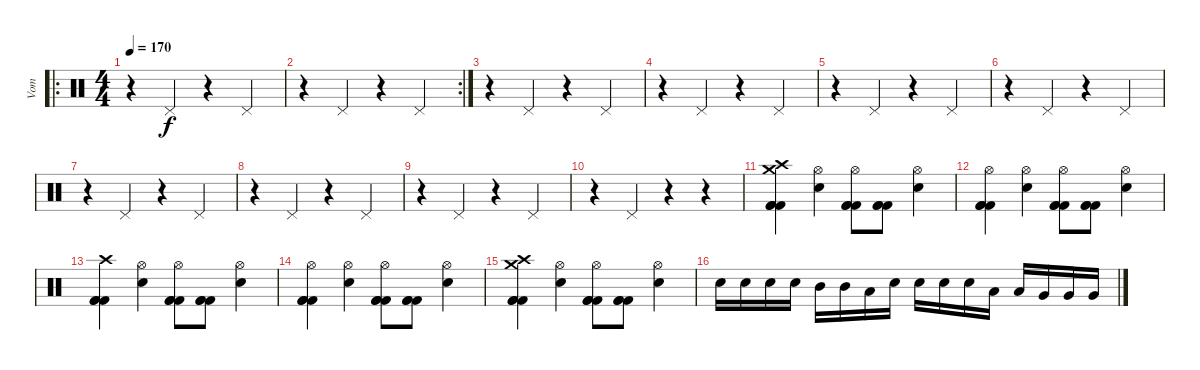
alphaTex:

\track ("Vom" "Vom") {instrument percussion}
\staff {score}
\articulation defaults
\ro
\ts (4 4)
\tempo 170
\clef neutral
\ks c
r.4{dy f} "Pedal Hi-Hat (hit)".4 r.4 "Pedal Hi-Hat (hit)".4 |
\rc 2
r.4 "Pedal Hi-Hat (hit)".4 r.4 "Pedal Hi-Hat (hit)".4 |
r.4 "Pedal Hi-Hat (hit)".4 r.4 "Pedal Hi-Hat (hit)".4 |
r.4 "Pedal Hi-Hat (hit)".4 r.4 "Pedal Hi-Hat (hit)".4 |
r.4 "Pedal Hi-Hat (hit)".4 r.4 "Pedal Hi-Hat (hit)".4 |
r.4 "Pedal Hi-Hat (hit)".4 r.4 "Pedal Hi-Hat (hit)".4 |
r.4 "Pedal Hi-Hat (hit)".4 r.4 "Pedal Hi-Hat (hit)".4 |
r.4 "Pedal Hi-Hat (hit)".4 r.4 "Pedal Hi-Hat (hit)".4 |
r.4 "Pedal Hi-Hat (hit)".4 r.4 "Pedal Hi-Hat (hit)".4 |
r.4 "Pedal Hi-Hat (hit)".4 r.4 r.4 |
("Crash medium (hit)" "Crash high (hit)" "Kick (hit) 2" "Kick (hit) 2" "Kick (hit) 2").4 ("Hi-Hat (open)" "Snare (hit) 2").4 ("Hi-Hat (open)" "Kick (hit) 2" "Kick (hit) 2" "Kick (hit) 2").8 ("Kick (hit) 2" "Kick (hit) 2" "Kick (hit) 2").8 ("Hi-Hat (open)" "Snare (hit) 2").4 |
("Hi-Hat (open)" "Kick (hit) 2" "Kick (hit) 2" "Kick (hit) 2").4 ("Hi-Hat (open)" "Snare (hit) 2").4 ("Hi-Hat (open)" "Kick (hit) 2" "Kick (hit) 2" "Kick (hit) 2").8 ("Kick (hit) 2" "Kick (hit) 2" "Kick (hit) 2").8 ("Hi-Hat (open)" "Snare (hit) 2").4 |
("Crash high (hit)" "Kick (hit) 2" "Kick (hit) 2" "Kick (hit) 2").4 ("Hi-Hat (open)" "Snare (hit) 2").4 ("Hi-Hat (open)" "Kick (hit) 2" "Kick (hit) 2" "Kick (hit) 2").8 ("Kick (hit) 2" "Kick (hit) 2" "Kick (hit) 2").8 ("Hi-Hat (open)" "Snare (hit) 2").4 |
("Hi-Hat (open)" "Kick (hit) 2" "Kick (hit) 2" "Kick (hit) 2").4 ("Hi-Hat (open)" "Snare (hit) 2").4 ("Hi-Hat (open)" "Kick (hit) 2" "Kick (hit) 2" "Kick (hit) 2").8 ("Kick (hit) 2" "Kick (hit) 2" "Kick (hit) 2").8 ("Hi-Hat (open)" "Snare (hit) 2").4 |
("Crash medium (hit)" "Crash high (hit)" "Kick (hit) 2" "Kick (hit) 2" "Kick (hit) 2").4 ("Hi-Hat (open)" "Snare (hit) 2").4 ("Hi-Hat (open)" "Kick (hit) 2" "Kick (hit) 2" "Kick (hit) 2").8 ("Kick (hit) 2" "Kick (hit) 2" "Kick (hit) 2").8 ("Hi-Hat (open)" "Snare (hit) 2").4 |
"Snare (hit) 2".16 "Snare (hit) 2".16 "Snare (hit) 2".16 "Snare (hit) 2".16 "Mid Tom (hit)".16 "Mid Tom (hit)".16 "Low Tom (hit)".16 "Snare (hit) 2".16 "Snare (hit) 2".16 "Snare (hit) 2".16 "Snare (hit) 2".16 "Low Tom (hit)".16 "Low Tom (hit)".16 "Very Low Tom (hit)".16 "Very Low Tom (hit)".16 "Very Low Tom (hit)".16
